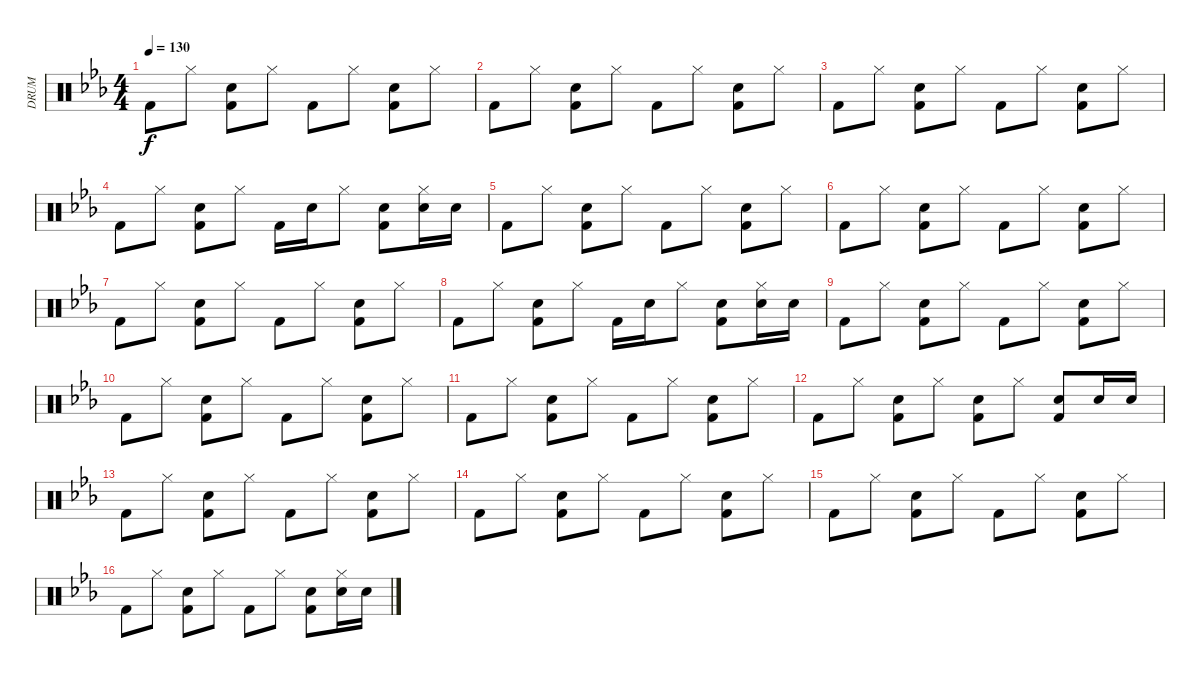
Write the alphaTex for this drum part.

\track ("DRUM" "DRUM") {instrument percussion}
\staff {score}
\articulation defaults
\ts (4 4)
\tempo 130
\clef neutral
\ks eb "Kick (hit) 2".8{dy f} "Hi-Hat (closed)".8
("Hand Clap (hit)" "Kick (hit) 2").8 "Hi-Hat (closed)".8 "Kick (hit) 2".8 "Hi-Hat (closed)".8 ("Hand Clap (hit)" "Kick (hit) 2").8 "Hi-Hat (closed)".8 |
"Kick (hit) 2".8 "Hi-Hat (closed)".8 ("Hand Clap (hit)" "Kick (hit) 2").8 "Hi-Hat (closed)".8 "Kick (hit) 2".8 "Hi-Hat (closed)".8 ("Hand Clap (hit)" "Kick (hit) 2").8 "Hi-Hat (closed)".8 |
"Kick (hit) 2".8 "Hi-Hat (closed)".8 ("Hand Clap (hit)" "Kick (hit) 2").8 "Hi-Hat (closed)".8 "Kick (hit) 2".8 "Hi-Hat (closed)".8 ("Hand Clap (hit)" "Kick (hit) 2").8 "Hi-Hat (closed)".8 |
"Kick (hit) 2".8 "Hi-Hat (closed)".8 ("Hand Clap (hit)" "Kick (hit) 2").8 "Hi-Hat (closed)".8 "Kick (hit) 2".16 "Hand Clap (hit)".16 "Hi-Hat (closed)".8 ("Hand Clap (hit)" "Kick (hit) 2").8 ("Hi-Hat (closed)" "Hand Clap (hit)").16 "Hand Clap (hit)".16 |
"Kick (hit) 2".8 "Hi-Hat (closed)".8 ("Hand Clap (hit)" "Kick (hit) 2").8 "Hi-Hat (closed)".8 "Kick (hit) 2".8 "Hi-Hat (closed)".8 ("Hand Clap (hit)" "Kick (hit) 2").8 "Hi-Hat (closed)".8 |
"Kick (hit) 2".8 "Hi-Hat (closed)".8 ("Hand Clap (hit)" "Kick (hit) 2").8 "Hi-Hat (closed)".8 "Kick (hit) 2".8 "Hi-Hat (closed)".8 ("Hand Clap (hit)" "Kick (hit) 2").8 "Hi-Hat (closed)".8 |
"Kick (hit) 2".8 "Hi-Hat (closed)".8 ("Hand Clap (hit)" "Kick (hit) 2").8 "Hi-Hat (closed)".8 "Kick (hit) 2".8 "Hi-Hat (closed)".8 ("Hand Clap (hit)" "Kick (hit) 2").8 "Hi-Hat (closed)".8 |
"Kick (hit) 2".8 "Hi-Hat (closed)".8 ("Hand Clap (hit)" "Kick (hit) 2").8 "Hi-Hat (closed)".8 "Kick (hit) 2".16 "Hand Clap (hit)".16 "Hi-Hat (closed)".8 ("Hand Clap (hit)" "Kick (hit) 2").8 ("Hi-Hat (closed)" "Hand Clap (hit)").16 "Hand Clap (hit)".16 |
"Kick (hit) 2".8 "Hi-Hat (closed)".8 ("Hand Clap (hit)" "Kick (hit) 2").8 "Hi-Hat (closed)".8 "Kick (hit) 2".8 "Hi-Hat (closed)".8 ("Hand Clap (hit)" "Kick (hit) 2").8 "Hi-Hat (closed)".8 |
"Kick (hit) 2".8 "Hi-Hat (closed)".8 ("Hand Clap (hit)" "Kick (hit) 2").8 "Hi-Hat (closed)".8 "Kick (hit) 2".8 "Hi-Hat (closed)".8 ("Hand Clap (hit)" "Kick (hit) 2").8 "Hi-Hat (closed)".8 |
"Kick (hit) 2".8 "Hi-Hat (closed)".8 ("Hand Clap (hit)" "Kick (hit) 2").8 "Hi-Hat (closed)".8 "Kick (hit) 2".8 "Hi-Hat (closed)".8 ("Hand Clap (hit)" "Kick (hit) 2").8 "Hi-Hat (closed)".8 |
"Kick (hit) 2".8 "Hi-Hat (closed)".8 ("Hand Clap (hit)" "Kick (hit) 2").8 "Hi-Hat (closed)".8 ("Hand Clap (hit)" "Kick (hit) 2").8 "Hi-Hat (closed)".8 ("Hand Clap (hit)" "Kick (hit) 2").8 "Hand Clap (hit)".16 "Hand Clap (hit)".16 |
"Kick (hit) 2".8 "Hi-Hat (closed)".8 ("Hand Clap (hit)" "Kick (hit) 2").8 "Hi-Hat (closed)".8 "Kick (hit) 2".8 "Hi-Hat (closed)".8 ("Hand Clap (hit)" "Kick (hit) 2").8 "Hi-Hat (closed)".8 |
"Kick (hit) 2".8 "Hi-Hat (closed)".8 ("Hand Clap (hit)" "Kick (hit) 2").8 "Hi-Hat (closed)".8 "Kick (hit) 2".8 "Hi-Hat (closed)".8 ("Hand Clap (hit)" "Kick (hit) 2").8 "Hi-Hat (closed)".8 |
"Kick (hit) 2".8 "Hi-Hat (closed)".8 ("Hand Clap (hit)" "Kick (hit) 2").8 "Hi-Hat (closed)".8 "Kick (hit) 2".8 "Hi-Hat (closed)".8 ("Hand Clap (hit)" "Kick (hit) 2").8 "Hi-Hat (closed)".8 |
"Kick (hit) 2".8 "Hi-Hat (closed)".8 ("Hand Clap (hit)" "Kick (hit) 2").8 "Hi-Hat (closed)".8 "Kick (hit) 2".8 "Hi-Hat (closed)".8 ("Hand Clap (hit)" "Kick (hit) 2").8 ("Hi-Hat (closed)" "Hand Clap (hit)").16 "Hand Clap (hit)".16
